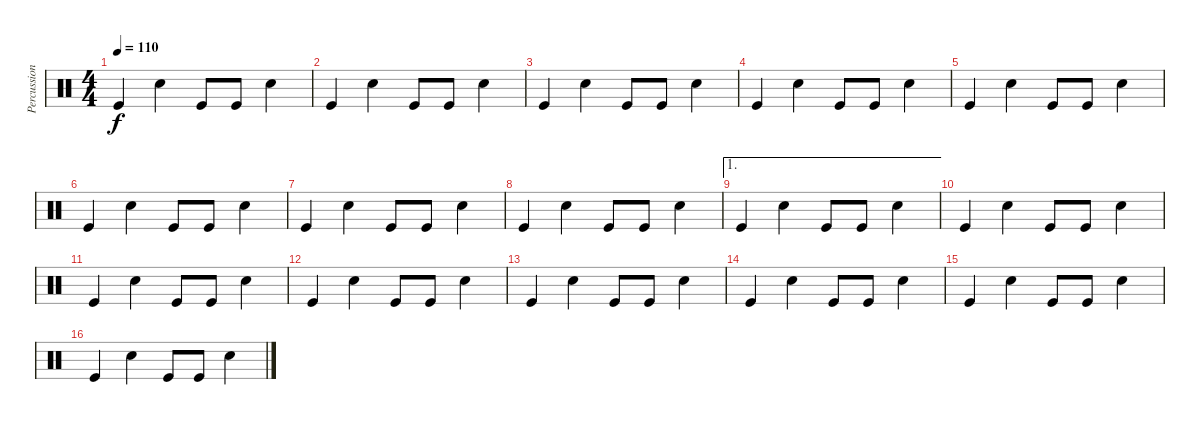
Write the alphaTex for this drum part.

\track ("Percussion" "Percussion") {instrument percussion}
\staff {score}
\articulation defaults
\ts (4 4)
\tempo 110
\clef neutral
\ks c "Kick (hit)".4{dy f} "Snare (hit) 2".4 "Kick (hit)".8 "Kick (hit)".8 "Snare (hit) 2".4
|
"Kick (hit)".4 "Snare (hit) 2".4 "Kick (hit)".8 "Kick (hit)".8 "Snare (hit) 2".4 |
"Kick (hit)".4 "Snare (hit) 2".4 "Kick (hit)".8 "Kick (hit)".8 "Snare (hit) 2".4 |
"Kick (hit)".4 "Snare (hit) 2".4 "Kick (hit)".8 "Kick (hit)".8 "Snare (hit) 2".4 |
"Kick (hit)".4 "Snare (hit) 2".4 "Kick (hit)".8 "Kick (hit)".8 "Snare (hit) 2".4 |
"Kick (hit)".4 "Snare (hit) 2".4 "Kick (hit)".8 "Kick (hit)".8 "Snare (hit) 2".4 |
"Kick (hit)".4 "Snare (hit) 2".4 "Kick (hit)".8 "Kick (hit)".8 "Snare (hit) 2".4 |
"Kick (hit)".4 "Snare (hit) 2".4 "Kick (hit)".8 "Kick (hit)".8 "Snare (hit) 2".4 |
\ae 1 "Kick (hit)".4 "Snare (hit) 2".4 "Kick (hit)".8 "Kick (hit)".8 "Snare (hit) 2".4
|
"Kick (hit)".4 "Snare (hit) 2".4 "Kick (hit)".8 "Kick (hit)".8 "Snare (hit) 2".4 |
"Kick (hit)".4 "Snare (hit) 2".4 "Kick (hit)".8 "Kick (hit)".8 "Snare (hit) 2".4 |
"Kick (hit)".4 "Snare (hit) 2".4 "Kick (hit)".8 "Kick (hit)".8 "Snare (hit) 2".4 |
"Kick (hit)".4 "Snare (hit) 2".4 "Kick (hit)".8 "Kick (hit)".8 "Snare (hit) 2".4 |
"Kick (hit)".4 "Snare (hit) 2".4 "Kick (hit)".8 "Kick (hit)".8 "Snare (hit) 2".4 |
"Kick (hit)".4 "Snare (hit) 2".4 "Kick (hit)".8 "Kick (hit)".8 "Snare (hit) 2".4 |
"Kick (hit)".4 "Snare (hit) 2".4 "Kick (hit)".8 "Kick (hit)".8 "Snare (hit) 2".4
